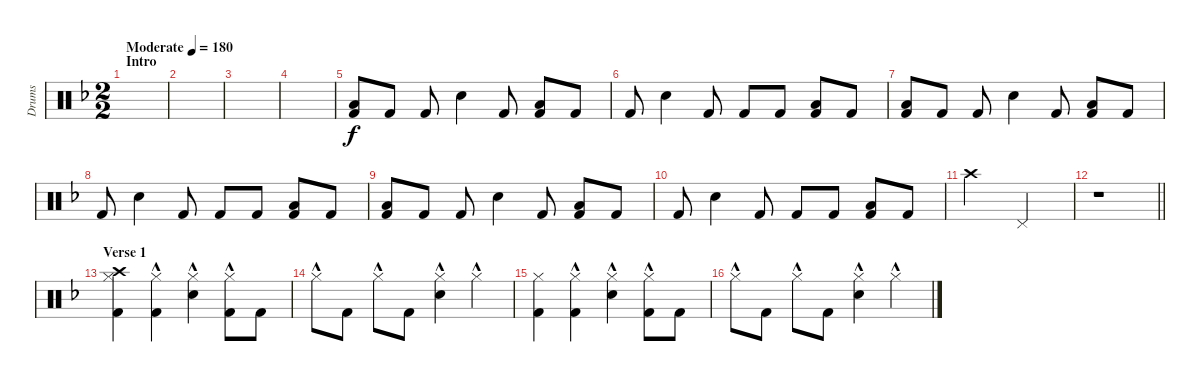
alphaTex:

\track ("Drums" "Drums") {instrument percussion}
\staff {score}
\articulation defaults
\ts (2 2)
\section ("" "Intro")
\tempo (180 "Moderate")
\clef neutral
\ks dminor
|
|
|
|
("Low Floor Tom (hit)" "Kick (hit) 2").8 "Kick (hit) 2".8 "Kick (hit) 2".8 "Snare (hit) 2".4 "Kick (hit) 2".8 ("Low Floor Tom (hit)" "Kick (hit) 2").8 "Kick (hit) 2".8 |
"Kick (hit) 2".8 "Snare (hit) 2".4 "Kick (hit) 2".8 "Kick (hit) 2".8 "Kick (hit) 2".8 ("Kick (hit) 2" "Low Floor Tom (hit)").8 "Kick (hit) 2".8 |
("Low Floor Tom (hit)" "Kick (hit) 2").8 "Kick (hit) 2".8 "Kick (hit) 2".8 "Snare (hit) 2".4 "Kick (hit) 2".8 ("Low Floor Tom (hit)" "Kick (hit) 2").8 "Kick (hit) 2".8 |
"Kick (hit) 2".8 "Snare (hit) 2".4 "Kick (hit) 2".8 "Kick (hit) 2".8 "Kick (hit) 2".8 ("Kick (hit) 2" "Low Floor Tom (hit)").8 "Kick (hit) 2".8 |
("Low Floor Tom (hit)" "Kick (hit) 2").8 "Kick (hit) 2".8 "Kick (hit) 2".8 "Snare (hit) 2".4 "Kick (hit) 2".8 ("Low Floor Tom (hit)" "Kick (hit) 2").8 "Kick (hit) 2".8 |
"Kick (hit) 2".8 "Snare (hit) 2".4 "Kick (hit) 2".8 "Kick (hit) 2".8 "Kick (hit) 2".8 ("Kick (hit) 2" "Low Floor Tom (hit)").8 "Kick (hit) 2".8 |
"Crash high (hit)".2 "Pedal Hi-Hat (hit)".2 |
\barLineRight lightlight
r.1 |
\section ("" "Verse 1")
("Hi-Hat (closed)" "Kick (hit) 2" "Crash high (hit)").4 ("Hi-Hat (closed)"{hac} "Kick (hit) 2").4 ("Hi-Hat (closed)"{hac} "Snare (hit) 2").4 ("Hi-Hat (closed)"{hac} "Kick (hit) 2").8 "Kick (hit) 2".8 |
"Hi-Hat (closed)"{hac}.8 "Kick (hit) 2".8 "Hi-Hat (closed)"{hac}.8 "Kick (hit) 2".8 ("Hi-Hat (closed)"{hac} "Snare (hit) 2").4 "Hi-Hat (closed)"{hac}.4 |
("Hi-Hat (closed)" "Kick (hit) 2").4 ("Hi-Hat (closed)"{hac} "Kick (hit) 2").4 ("Hi-Hat (closed)"{hac} "Snare (hit) 2").4 ("Hi-Hat (closed)"{hac} "Kick (hit) 2").8 "Kick (hit) 2".8 |
"Hi-Hat (closed)"{hac}.8 "Kick (hit) 2".8 "Hi-Hat (closed)"{hac}.8 "Kick (hit) 2".8 ("Hi-Hat (closed)"{hac} "Snare (hit) 2").4 "Hi-Hat (closed)"{hac}.4
